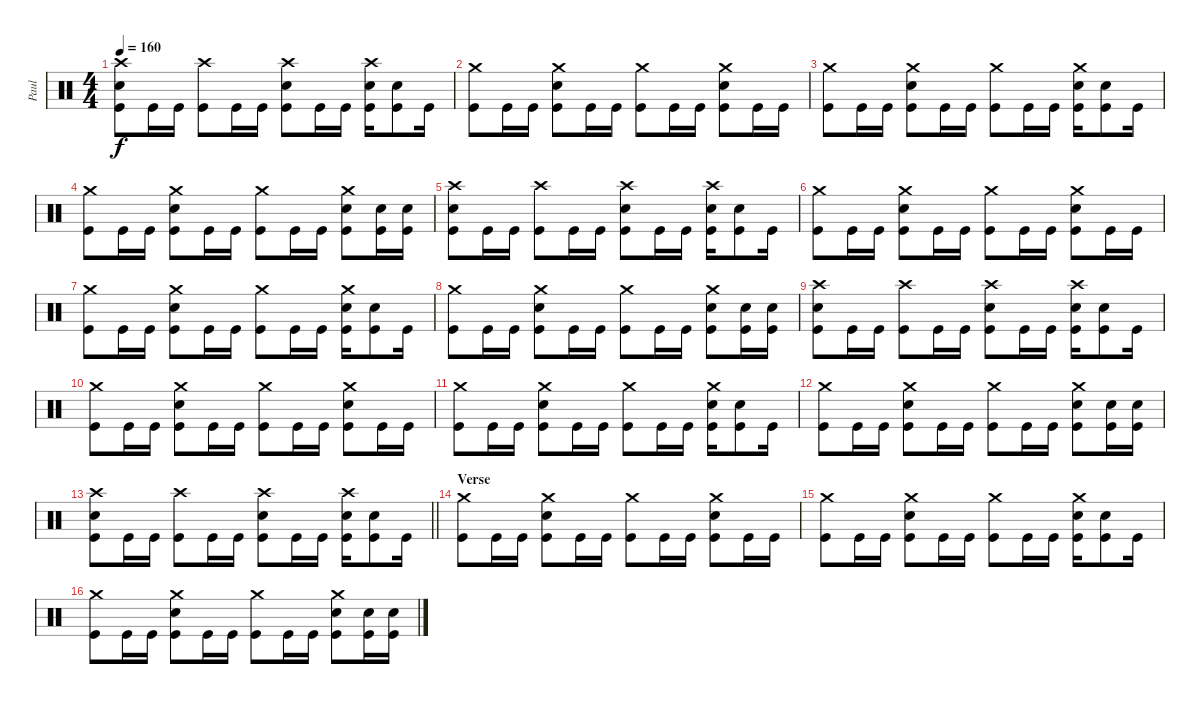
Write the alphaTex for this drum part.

\track ("Paul" "Paul") {instrument percussion}
\staff {score}
\articulation defaults
\ts (4 4)
\tempo 160
\clef neutral
\ks c
("Crash high (hit)" "Electric Snare (hit)" "Kick (hit)").8{dy f} "Kick (hit)".16 "Kick (hit)".16 ("Crash high (hit)" "Kick (hit)").8 "Kick (hit)".16 "Kick (hit)".16 ("Crash high (hit)" "Electric Snare (hit)" "Kick (hit)").8 "Kick (hit)".16 "Kick (hit)".16 ("Crash high (hit)" "Electric Snare (hit)" "Kick (hit)").16 ("Electric Snare (hit)" "Kick (hit)").8 "Kick (hit)".16 |
("Crash medium (hit)" "Kick (hit)").8 "Kick (hit)".16 "Kick (hit)".16 ("Crash medium (hit)" "Electric Snare (hit)" "Kick (hit)").8 "Kick (hit)".16 "Kick (hit)".16 ("Crash medium (hit)" "Kick (hit)").8 "Kick (hit)".16 "Kick (hit)".16 ("Crash medium (hit)" "Electric Snare (hit)" "Kick (hit)").8 "Kick (hit)".16 "Kick (hit)".16 |
("Crash medium (hit)" "Kick (hit)").8 "Kick (hit)".16 "Kick (hit)".16 ("Crash medium (hit)" "Electric Snare (hit)" "Kick (hit)").8 "Kick (hit)".16 "Kick (hit)".16 ("Crash medium (hit)" "Kick (hit)").8 "Kick (hit)".16 "Kick (hit)".16 ("Crash medium (hit)" "Electric Snare (hit)" "Kick (hit)").16 ("Electric Snare (hit)" "Kick (hit)").8 "Kick (hit)".16 |
("Crash medium (hit)" "Kick (hit)").8 "Kick (hit)".16 "Kick (hit)".16 ("Crash medium (hit)" "Electric Snare (hit)" "Kick (hit)").8 "Kick (hit)".16 "Kick (hit)".16 ("Crash medium (hit)" "Kick (hit)").8 "Kick (hit)".16 "Kick (hit)".16 ("Crash medium (hit)" "Electric Snare (hit)" "Kick (hit)").8 ("Electric Snare (hit)" "Kick (hit)").16 ("Electric Snare (hit)" "Kick (hit)").16 |
("Crash high (hit)" "Electric Snare (hit)" "Kick (hit)").8 "Kick (hit)".16 "Kick (hit)".16 ("Crash high (hit)" "Kick (hit)").8 "Kick (hit)".16 "Kick (hit)".16 ("Crash high (hit)" "Electric Snare (hit)" "Kick (hit)").8 "Kick (hit)".16 "Kick (hit)".16 ("Crash high (hit)" "Electric Snare (hit)" "Kick (hit)").16 ("Electric Snare (hit)" "Kick (hit)").8 "Kick (hit)".16 |
("Crash medium (hit)" "Kick (hit)").8 "Kick (hit)".16 "Kick (hit)".16 ("Crash medium (hit)" "Electric Snare (hit)" "Kick (hit)").8 "Kick (hit)".16 "Kick (hit)".16 ("Crash medium (hit)" "Kick (hit)").8 "Kick (hit)".16 "Kick (hit)".16 ("Crash medium (hit)" "Electric Snare (hit)" "Kick (hit)").8 "Kick (hit)".16 "Kick (hit)".16 |
("Crash medium (hit)" "Kick (hit)").8 "Kick (hit)".16 "Kick (hit)".16 ("Crash medium (hit)" "Electric Snare (hit)" "Kick (hit)").8 "Kick (hit)".16 "Kick (hit)".16 ("Crash medium (hit)" "Kick (hit)").8 "Kick (hit)".16 "Kick (hit)".16 ("Crash medium (hit)" "Electric Snare (hit)" "Kick (hit)").16 ("Electric Snare (hit)" "Kick (hit)").8 "Kick (hit)".16 |
("Crash medium (hit)" "Kick (hit)").8 "Kick (hit)".16 "Kick (hit)".16 ("Crash medium (hit)" "Electric Snare (hit)" "Kick (hit)").8 "Kick (hit)".16 "Kick (hit)".16 ("Crash medium (hit)" "Kick (hit)").8 "Kick (hit)".16 "Kick (hit)".16 ("Crash medium (hit)" "Electric Snare (hit)" "Kick (hit)").8 ("Electric Snare (hit)" "Kick (hit)").16 ("Electric Snare (hit)" "Kick (hit)").16 |
("Crash high (hit)" "Electric Snare (hit)" "Kick (hit)").8 "Kick (hit)".16 "Kick (hit)".16 ("Crash high (hit)" "Kick (hit)").8 "Kick (hit)".16 "Kick (hit)".16 ("Crash high (hit)" "Electric Snare (hit)" "Kick (hit)").8 "Kick (hit)".16 "Kick (hit)".16 ("Crash high (hit)" "Electric Snare (hit)" "Kick (hit)").16 ("Electric Snare (hit)" "Kick (hit)").8 "Kick (hit)".16 |
("Crash medium (hit)" "Kick (hit)").8 "Kick (hit)".16 "Kick (hit)".16 ("Crash medium (hit)" "Electric Snare (hit)" "Kick (hit)").8 "Kick (hit)".16 "Kick (hit)".16 ("Crash medium (hit)" "Kick (hit)").8 "Kick (hit)".16 "Kick (hit)".16 ("Crash medium (hit)" "Electric Snare (hit)" "Kick (hit)").8 "Kick (hit)".16 "Kick (hit)".16 |
("Crash medium (hit)" "Kick (hit)").8 "Kick (hit)".16 "Kick (hit)".16 ("Crash medium (hit)" "Electric Snare (hit)" "Kick (hit)").8 "Kick (hit)".16 "Kick (hit)".16 ("Crash medium (hit)" "Kick (hit)").8 "Kick (hit)".16 "Kick (hit)".16 ("Crash medium (hit)" "Electric Snare (hit)" "Kick (hit)").16 ("Electric Snare (hit)" "Kick (hit)").8 "Kick (hit)".16 |
("Crash medium (hit)" "Kick (hit)").8 "Kick (hit)".16 "Kick (hit)".16 ("Crash medium (hit)" "Electric Snare (hit)" "Kick (hit)").8 "Kick (hit)".16 "Kick (hit)".16 ("Crash medium (hit)" "Kick (hit)").8 "Kick (hit)".16 "Kick (hit)".16 ("Crash medium (hit)" "Electric Snare (hit)" "Kick (hit)").8 ("Electric Snare (hit)" "Kick (hit)").16 ("Electric Snare (hit)" "Kick (hit)").16 |
\barLineRight lightlight
("Crash high (hit)" "Electric Snare (hit)" "Kick (hit)").8 "Kick (hit)".16 "Kick (hit)".16 ("Crash high (hit)" "Kick (hit)").8 "Kick (hit)".16 "Kick (hit)".16 ("Crash high (hit)" "Electric Snare (hit)" "Kick (hit)").8 "Kick (hit)".16 "Kick (hit)".16 ("Crash high (hit)" "Electric Snare (hit)" "Kick (hit)").16 ("Electric Snare (hit)" "Kick (hit)").8 "Kick (hit)".16 |
\section ("" "Verse")
("Crash medium (hit)" "Kick (hit)").8 "Kick (hit)".16 "Kick (hit)".16 ("Crash medium (hit)" "Electric Snare (hit)" "Kick (hit)").8 "Kick (hit)".16 "Kick (hit)".16 ("Crash medium (hit)" "Kick (hit)").8 "Kick (hit)".16 "Kick (hit)".16 ("Crash medium (hit)" "Electric Snare (hit)" "Kick (hit)").8 "Kick (hit)".16 "Kick (hit)".16 |
("Crash medium (hit)" "Kick (hit)").8 "Kick (hit)".16 "Kick (hit)".16 ("Crash medium (hit)" "Electric Snare (hit)" "Kick (hit)").8 "Kick (hit)".16 "Kick (hit)".16 ("Crash medium (hit)" "Kick (hit)").8 "Kick (hit)".16 "Kick (hit)".16 ("Crash medium (hit)" "Electric Snare (hit)" "Kick (hit)").16 ("Electric Snare (hit)" "Kick (hit)").8 "Kick (hit)".16 |
("Crash medium (hit)" "Kick (hit)").8 "Kick (hit)".16 "Kick (hit)".16 ("Crash medium (hit)" "Electric Snare (hit)" "Kick (hit)").8 "Kick (hit)".16 "Kick (hit)".16 ("Crash medium (hit)" "Kick (hit)").8 "Kick (hit)".16 "Kick (hit)".16 ("Crash medium (hit)" "Electric Snare (hit)" "Kick (hit)").8 ("Electric Snare (hit)" "Kick (hit)").16 ("Electric Snare (hit)" "Kick (hit)").16
